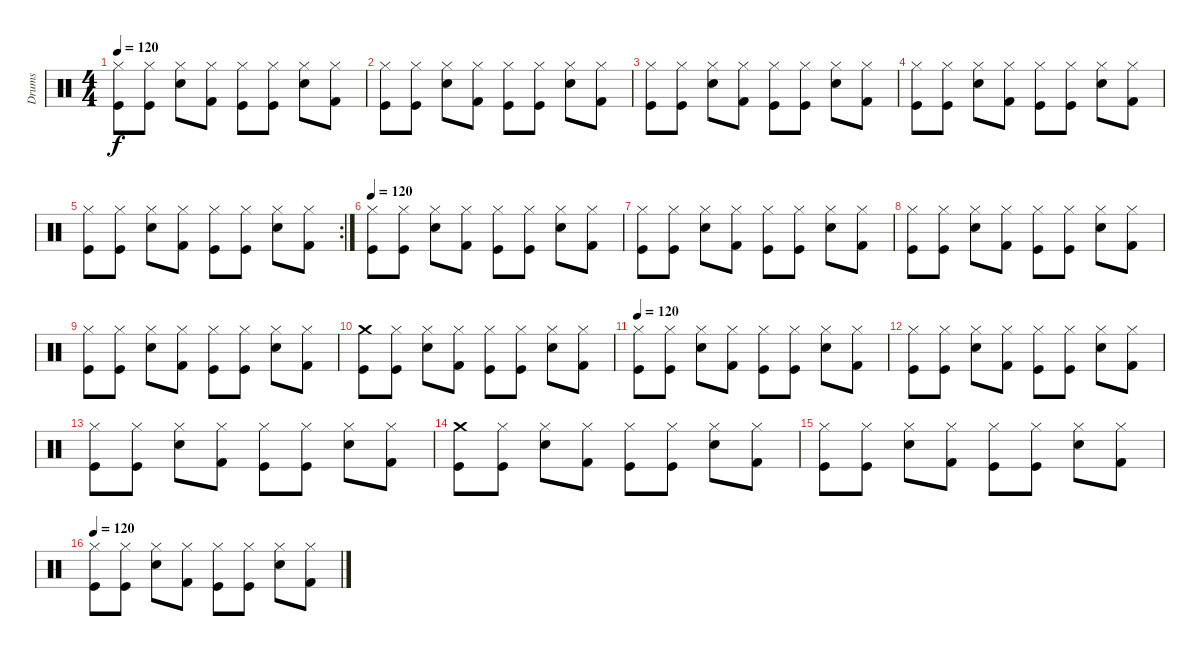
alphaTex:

\track ("Drums" "Drums") {instrument percussion}
\staff {score}
\articulation defaults
\ts (4 4)
\tempo 120
\clef neutral
\ks c
("Hi-Hat (closed)" "Kick (hit)").8{dy f} ("Hi-Hat (closed)" "Kick (hit)").8 ("Hi-Hat (closed)" "Electric Snare (hit)").8 ("Hi-Hat (closed)" "Kick (hit) 2").8 ("Hi-Hat (closed)" "Kick (hit)").8 ("Hi-Hat (closed)" "Kick (hit)").8 ("Hi-Hat (closed)" "Electric Snare (hit)").8 ("Hi-Hat (closed)" "Kick (hit) 2").8 |
("Hi-Hat (closed)" "Kick (hit)").8 ("Hi-Hat (closed)" "Kick (hit)").8 ("Hi-Hat (closed)" "Electric Snare (hit)").8 ("Hi-Hat (closed)" "Kick (hit) 2").8 ("Hi-Hat (closed)" "Kick (hit)").8 ("Hi-Hat (closed)" "Kick (hit)").8 ("Hi-Hat (closed)" "Electric Snare (hit)").8 ("Hi-Hat (closed)" "Kick (hit) 2").8 |
("Hi-Hat (closed)" "Kick (hit)").8 ("Hi-Hat (closed)" "Kick (hit)").8 ("Hi-Hat (closed)" "Electric Snare (hit)").8 ("Hi-Hat (closed)" "Kick (hit) 2").8 ("Hi-Hat (closed)" "Kick (hit)").8 ("Hi-Hat (closed)" "Kick (hit)").8 ("Hi-Hat (closed)" "Electric Snare (hit)").8 ("Hi-Hat (closed)" "Kick (hit) 2").8 |
("Hi-Hat (closed)" "Kick (hit)").8 ("Hi-Hat (closed)" "Kick (hit)").8 ("Hi-Hat (closed)" "Electric Snare (hit)").8 ("Hi-Hat (closed)" "Kick (hit) 2").8 ("Hi-Hat (closed)" "Kick (hit)").8 ("Hi-Hat (closed)" "Kick (hit)").8 ("Hi-Hat (closed)" "Electric Snare (hit)").8 ("Hi-Hat (closed)" "Kick (hit) 2").8 |
\rc 2
("Hi-Hat (closed)" "Kick (hit)").8 ("Hi-Hat (closed)" "Kick (hit)").8 ("Hi-Hat (closed)" "Electric Snare (hit)").8 ("Hi-Hat (closed)" "Kick (hit) 2").8 ("Hi-Hat (closed)" "Kick (hit)").8 ("Hi-Hat (closed)" "Kick (hit)").8 ("Hi-Hat (closed)" "Electric Snare (hit)").8 ("Hi-Hat (closed)" "Kick (hit) 2").8 |
\tempo 120
("Hi-Hat (closed)" "Kick (hit)").8 ("Hi-Hat (closed)" "Kick (hit)").8 ("Hi-Hat (closed)" "Electric Snare (hit)").8 ("Hi-Hat (closed)" "Kick (hit) 2").8 ("Hi-Hat (closed)" "Kick (hit)").8 ("Hi-Hat (closed)" "Kick (hit)").8 ("Hi-Hat (closed)" "Electric Snare (hit)").8 ("Hi-Hat (closed)" "Kick (hit) 2").8 |
("Hi-Hat (closed)" "Kick (hit)").8 ("Hi-Hat (closed)" "Kick (hit)").8 ("Hi-Hat (closed)" "Electric Snare (hit)").8 ("Hi-Hat (closed)" "Kick (hit) 2").8 ("Hi-Hat (closed)" "Kick (hit)").8 ("Hi-Hat (closed)" "Kick (hit)").8 ("Hi-Hat (closed)" "Electric Snare (hit)").8 ("Hi-Hat (closed)" "Kick (hit) 2").8 |
("Hi-Hat (closed)" "Kick (hit)").8 ("Hi-Hat (closed)" "Kick (hit)").8 ("Hi-Hat (closed)" "Electric Snare (hit)").8 ("Hi-Hat (closed)" "Kick (hit) 2").8 ("Hi-Hat (closed)" "Kick (hit)").8 ("Hi-Hat (closed)" "Kick (hit)").8 ("Hi-Hat (closed)" "Electric Snare (hit)").8 ("Hi-Hat (closed)" "Kick (hit) 2").8 |
("Hi-Hat (closed)" "Kick (hit)").8 ("Hi-Hat (closed)" "Kick (hit)").8 ("Hi-Hat (closed)" "Electric Snare (hit)").8 ("Hi-Hat (closed)" "Kick (hit) 2").8 ("Hi-Hat (closed)" "Kick (hit)").8 ("Hi-Hat (closed)" "Kick (hit)").8 ("Hi-Hat (closed)" "Electric Snare (hit)").8 ("Hi-Hat (closed)" "Kick (hit) 2").8 |
("Crash medium (hit)" "Kick (hit)").8 ("Hi-Hat (closed)" "Kick (hit)").8 ("Hi-Hat (closed)" "Electric Snare (hit)").8 ("Hi-Hat (closed)" "Kick (hit) 2").8 ("Hi-Hat (closed)" "Kick (hit)").8 ("Hi-Hat (closed)" "Kick (hit)").8 ("Hi-Hat (closed)" "Electric Snare (hit)").8 ("Hi-Hat (closed)" "Kick (hit) 2").8 |
\tempo 120
("Hi-Hat (closed)" "Kick (hit)").8 ("Hi-Hat (closed)" "Kick (hit)").8 ("Hi-Hat (closed)" "Electric Snare (hit)").8 ("Hi-Hat (closed)" "Kick (hit) 2").8 ("Hi-Hat (closed)" "Kick (hit)").8 ("Hi-Hat (closed)" "Kick (hit)").8 ("Hi-Hat (closed)" "Electric Snare (hit)").8 ("Hi-Hat (closed)" "Kick (hit) 2").8 |
("Hi-Hat (closed)" "Kick (hit)").8 ("Hi-Hat (closed)" "Kick (hit)").8 ("Hi-Hat (closed)" "Electric Snare (hit)").8 ("Hi-Hat (closed)" "Kick (hit) 2").8 ("Hi-Hat (closed)" "Kick (hit)").8 ("Hi-Hat (closed)" "Kick (hit)").8 ("Hi-Hat (closed)" "Electric Snare (hit)").8 ("Hi-Hat (closed)" "Kick (hit) 2").8 |
("Hi-Hat (closed)" "Kick (hit)").8 ("Hi-Hat (closed)" "Kick (hit)").8 ("Hi-Hat (closed)" "Electric Snare (hit)").8 ("Hi-Hat (closed)" "Kick (hit) 2").8 ("Hi-Hat (closed)" "Kick (hit)").8 ("Hi-Hat (closed)" "Kick (hit)").8 ("Hi-Hat (closed)" "Electric Snare (hit)").8 ("Hi-Hat (closed)" "Kick (hit) 2").8 |
("Crash medium (hit)" "Kick (hit)").8 ("Hi-Hat (closed)" "Kick (hit)").8 ("Hi-Hat (closed)" "Electric Snare (hit)").8 ("Hi-Hat (closed)" "Kick (hit) 2").8 ("Hi-Hat (closed)" "Kick (hit)").8 ("Hi-Hat (closed)" "Kick (hit)").8 ("Hi-Hat (closed)" "Electric Snare (hit)").8 ("Hi-Hat (closed)" "Kick (hit) 2").8 |
("Hi-Hat (closed)" "Kick (hit)").8 ("Hi-Hat (closed)" "Kick (hit)").8 ("Hi-Hat (closed)" "Electric Snare (hit)").8 ("Hi-Hat (closed)" "Kick (hit) 2").8 ("Hi-Hat (closed)" "Kick (hit)").8 ("Hi-Hat (closed)" "Kick (hit)").8 ("Hi-Hat (closed)" "Electric Snare (hit)").8 ("Hi-Hat (closed)" "Kick (hit) 2").8 |
\tempo 120
("Hi-Hat (closed)" "Kick (hit)").8 ("Hi-Hat (closed)" "Kick (hit)").8 ("Hi-Hat (closed)" "Electric Snare (hit)").8 ("Hi-Hat (closed)" "Kick (hit) 2").8 ("Hi-Hat (closed)" "Kick (hit)").8 ("Hi-Hat (closed)" "Kick (hit)").8 ("Hi-Hat (closed)" "Electric Snare (hit)").8 ("Hi-Hat (closed)" "Kick (hit) 2").8
